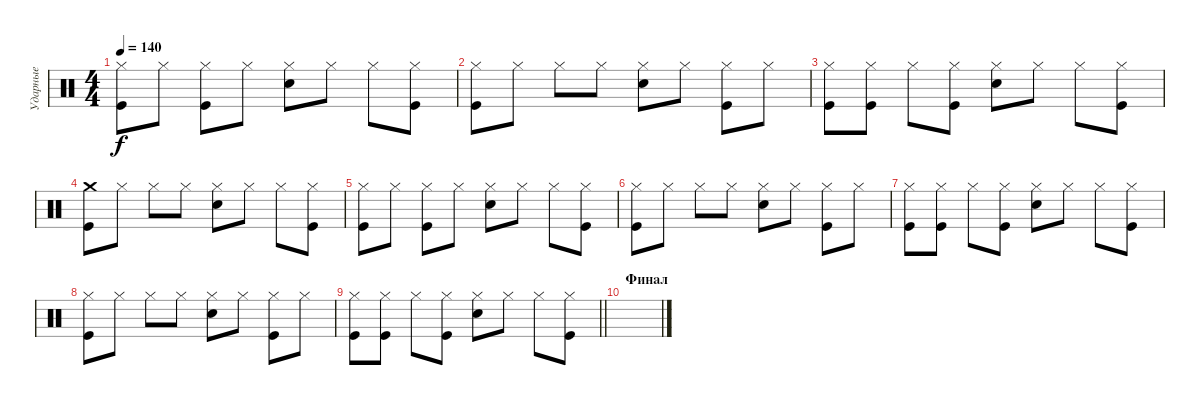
\track ("Ударные" "Ударные") {instrument percussion}
\staff {score}
\articulation defaults
\ts (4 4)
\tempo 140
\clef neutral
\ks c
("Hi-Hat (closed)" "Kick (hit)").8{dy f} "Hi-Hat (closed)".8 ("Hi-Hat (closed)" "Kick (hit)").8 "Hi-Hat (closed)".8 ("Hi-Hat (closed)" "Snare (hit) 2").8 "Hi-Hat (closed)".8 "Hi-Hat (closed)".8 ("Hi-Hat (closed)" "Kick (hit)").8 |
("Hi-Hat (closed)" "Kick (hit)").8 "Hi-Hat (closed)".8 "Hi-Hat (closed)".8 "Hi-Hat (closed)".8 ("Hi-Hat (closed)" "Snare (hit) 2").8 "Hi-Hat (closed)".8 ("Hi-Hat (closed)" "Kick (hit)").8 "Hi-Hat (closed)".8 |
("Hi-Hat (closed)" "Kick (hit)").8 ("Hi-Hat (closed)" "Kick (hit)").8 "Hi-Hat (closed)".8 ("Hi-Hat (closed)" "Kick (hit)").8 ("Hi-Hat (closed)" "Snare (hit) 2").8 "Hi-Hat (closed)".8 "Hi-Hat (closed)".8 ("Hi-Hat (closed)" "Kick (hit)").8 |
("Crash medium (hit)" "Kick (hit)").8 "Hi-Hat (closed)".8 "Hi-Hat (closed)".8 "Hi-Hat (closed)".8 ("Hi-Hat (closed)" "Snare (hit) 2").8 "Hi-Hat (closed)".8 "Hi-Hat (closed)".8 ("Hi-Hat (closed)" "Kick (hit)").8 |
("Hi-Hat (closed)" "Kick (hit)").8 "Hi-Hat (closed)".8 ("Hi-Hat (closed)" "Kick (hit)").8 "Hi-Hat (closed)".8 ("Hi-Hat (closed)" "Snare (hit) 2").8 "Hi-Hat (closed)".8 "Hi-Hat (closed)".8 ("Hi-Hat (closed)" "Kick (hit)").8 |
("Hi-Hat (closed)" "Kick (hit)").8 "Hi-Hat (closed)".8 "Hi-Hat (closed)".8 "Hi-Hat (closed)".8 ("Hi-Hat (closed)" "Snare (hit) 2").8 "Hi-Hat (closed)".8 ("Hi-Hat (closed)" "Kick (hit)").8 "Hi-Hat (closed)".8 |
("Hi-Hat (closed)" "Kick (hit)").8 ("Hi-Hat (closed)" "Kick (hit)").8 "Hi-Hat (closed)".8 ("Hi-Hat (closed)" "Kick (hit)").8 ("Hi-Hat (closed)" "Snare (hit) 2").8 "Hi-Hat (closed)".8 "Hi-Hat (closed)".8 ("Hi-Hat (closed)" "Kick (hit)").8 |
("Hi-Hat (closed)" "Kick (hit)").8 "Hi-Hat (closed)".8 "Hi-Hat (closed)".8 "Hi-Hat (closed)".8 ("Hi-Hat (closed)" "Snare (hit) 2").8 "Hi-Hat (closed)".8 ("Hi-Hat (closed)" "Kick (hit)").8 "Hi-Hat (closed)".8 |
\barLineRight lightlight
("Hi-Hat (closed)" "Kick (hit)").8 ("Hi-Hat (closed)" "Kick (hit)").8 "Hi-Hat (closed)".8 ("Hi-Hat (closed)" "Kick (hit)").8 ("Hi-Hat (closed)" "Snare (hit) 2").8 "Hi-Hat (closed)".8 "Hi-Hat (closed)".8 ("Hi-Hat (closed)" "Kick (hit)").8 |
\section ("" "Финал")
